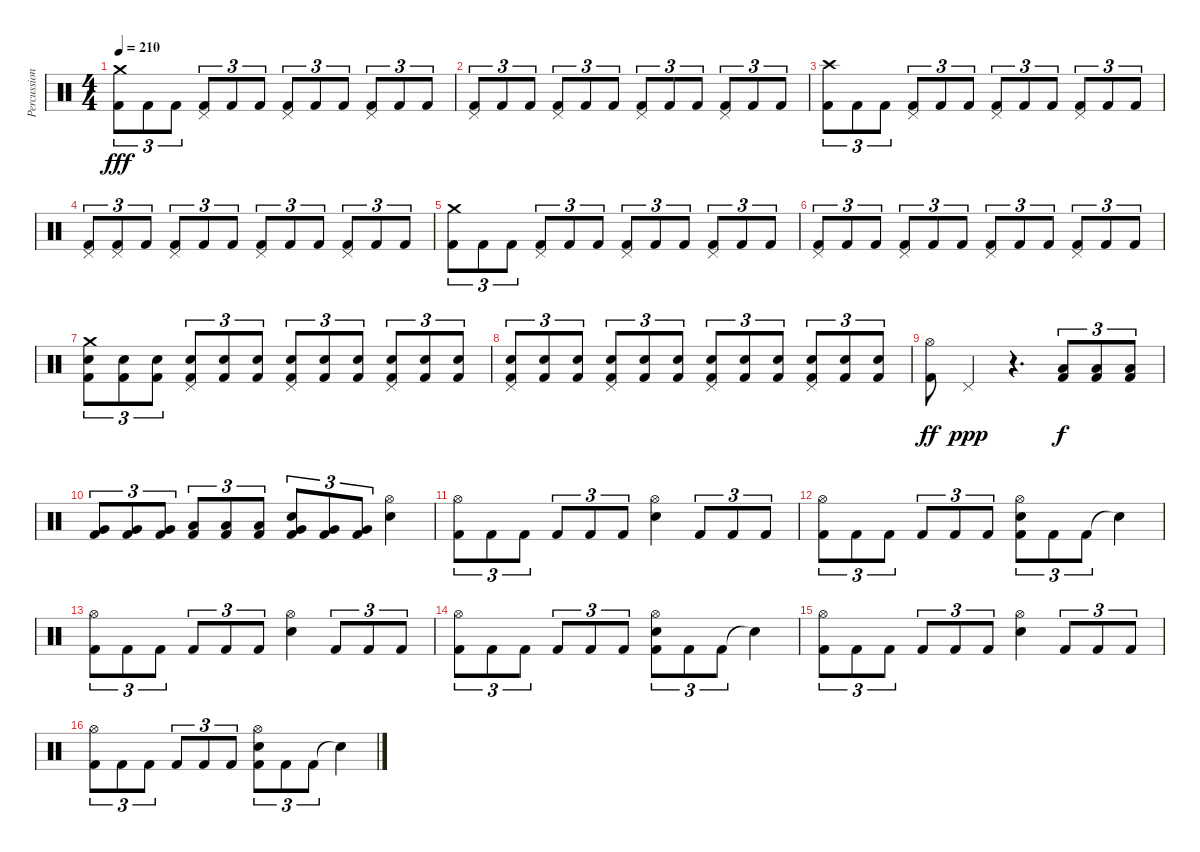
\track ("Percussion" "Percussion") {instrument percussion}
\staff {score}
\articulation defaults
\ts (4 4)
\tempo 210
\clef neutral
\ks c
("Crash medium (hit)" "Kick (hit) 2").8{tu (3 2) dy fff} "Kick (hit) 2".8{tu (3 2)} "Kick (hit) 2".8{tu (3 2)} ("Pedal Hi-Hat (hit)" "Kick (hit) 2").8{tu (3 2)} "Kick (hit) 2".8{tu (3 2)} "Kick (hit) 2".8{tu (3 2)} ("Pedal Hi-Hat (hit)" "Kick (hit) 2").8{tu (3 2)} "Kick (hit) 2".8{tu (3 2)} "Kick (hit) 2".8{tu (3 2)} ("Pedal Hi-Hat (hit)" "Kick (hit) 2").8{tu (3 2)} "Kick (hit) 2".8{tu (3 2)} "Kick (hit) 2".8{tu (3 2)} |
("Pedal Hi-Hat (hit)" "Kick (hit) 2").8{tu (3 2)} "Kick (hit) 2".8{tu (3 2)} "Kick (hit) 2".8{tu (3 2)} ("Pedal Hi-Hat (hit)" "Kick (hit) 2").8{tu (3 2)} "Kick (hit) 2".8{tu (3 2)} "Kick (hit) 2".8{tu (3 2)} ("Pedal Hi-Hat (hit)" "Kick (hit) 2").8{tu (3 2)} "Kick (hit) 2".8{tu (3 2)} "Kick (hit) 2".8{tu (3 2)} ("Pedal Hi-Hat (hit)" "Kick (hit) 2").8{tu (3 2)} "Kick (hit) 2".8{tu (3 2)} "Kick (hit) 2".8{tu (3 2)} |
("Crash high (hit)" "Kick (hit) 2").8{tu (3 2)} "Kick (hit) 2".8{tu (3 2)} "Kick (hit) 2".8{tu (3 2)} ("Pedal Hi-Hat (hit)" "Kick (hit) 2").8{tu (3 2)} "Kick (hit) 2".8{tu (3 2)} "Kick (hit) 2".8{tu (3 2)} ("Pedal Hi-Hat (hit)" "Kick (hit) 2").8{tu (3 2)} "Kick (hit) 2".8{tu (3 2)} "Kick (hit) 2".8{tu (3 2)} ("Pedal Hi-Hat (hit)" "Kick (hit) 2").8{tu (3 2)} "Kick (hit) 2".8{tu (3 2)} "Kick (hit) 2".8{tu (3 2)} |
("Pedal Hi-Hat (hit)" "Kick (hit) 2").8{tu (3 2)} ("Pedal Hi-Hat (hit)" "Kick (hit) 2").8{tu (3 2)} "Kick (hit) 2".8{tu (3 2)} ("Pedal Hi-Hat (hit)" "Kick (hit) 2").8{tu (3 2)} "Kick (hit) 2".8{tu (3 2)} "Kick (hit) 2".8{tu (3 2)} ("Pedal Hi-Hat (hit)" "Kick (hit) 2").8{tu (3 2)} "Kick (hit) 2".8{tu (3 2)} "Kick (hit) 2".8{tu (3 2)} ("Pedal Hi-Hat (hit)" "Kick (hit) 2").8{tu (3 2)} "Kick (hit) 2".8{tu (3 2)} "Kick (hit) 2".8{tu (3 2)} |
("Crash medium (hit)" "Kick (hit) 2").8{tu (3 2)} "Kick (hit) 2".8{tu (3 2)} "Kick (hit) 2".8{tu (3 2)} ("Pedal Hi-Hat (hit)" "Kick (hit) 2").8{tu (3 2)} "Kick (hit) 2".8{tu (3 2)} "Kick (hit) 2".8{tu (3 2)} ("Pedal Hi-Hat (hit)" "Kick (hit) 2").8{tu (3 2)} "Kick (hit) 2".8{tu (3 2)} "Kick (hit) 2".8{tu (3 2)} ("Pedal Hi-Hat (hit)" "Kick (hit) 2").8{tu (3 2)} "Kick (hit) 2".8{tu (3 2)} "Kick (hit) 2".8{tu (3 2)} |
("Pedal Hi-Hat (hit)" "Kick (hit) 2").8{tu (3 2)} "Kick (hit) 2".8{tu (3 2)} "Kick (hit) 2".8{tu (3 2)} ("Pedal Hi-Hat (hit)" "Kick (hit) 2").8{tu (3 2)} "Kick (hit) 2".8{tu (3 2)} "Kick (hit) 2".8{tu (3 2)} ("Pedal Hi-Hat (hit)" "Kick (hit) 2").8{tu (3 2)} "Kick (hit) 2".8{tu (3 2)} "Kick (hit) 2".8{tu (3 2)} ("Pedal Hi-Hat (hit)" "Kick (hit) 2").8{tu (3 2)} "Kick (hit) 2".8{tu (3 2)} "Kick (hit) 2".8{tu (3 2)} |
("Crash medium (hit)" "Electric Snare (hit)" "Kick (hit) 2").8{tu (3 2)} ("Electric Snare (hit)" "Kick (hit) 2").8{tu (3 2)} ("Electric Snare (hit)" "Kick (hit) 2").8{tu (3 2)} ("Pedal Hi-Hat (hit)" "Electric Snare (hit)" "Kick (hit) 2").8{tu (3 2)} ("Electric Snare (hit)" "Kick (hit) 2").8{tu (3 2)} ("Electric Snare (hit)" "Kick (hit) 2").8{tu (3 2)} ("Pedal Hi-Hat (hit)" "Electric Snare (hit)" "Kick (hit) 2").8{tu (3 2)} ("Electric Snare (hit)" "Kick (hit) 2").8{tu (3 2)} ("Electric Snare (hit)" "Kick (hit) 2").8{tu (3 2)} ("Pedal Hi-Hat (hit)" "Electric Snare (hit)" "Kick (hit) 2").8{tu (3 2)} ("Electric Snare (hit)" "Kick (hit) 2").8{tu (3 2)} ("Electric Snare (hit)" "Kick (hit) 2").8{tu (3 2)} |
("Pedal Hi-Hat (hit)" "Electric Snare (hit)" "Kick (hit) 2").8{tu (3 2)} ("Electric Snare (hit)" "Kick (hit) 2").8{tu (3 2)} ("Electric Snare (hit)" "Kick (hit) 2").8{tu (3 2)} ("Pedal Hi-Hat (hit)" "Electric Snare (hit)" "Kick (hit) 2").8{tu (3 2)} ("Electric Snare (hit)" "Kick (hit) 2").8{tu (3 2)} ("Electric Snare (hit)" "Kick (hit) 2").8{tu (3 2)} ("Pedal Hi-Hat (hit)" "Electric Snare (hit)" "Kick (hit) 2").8{tu (3 2)} ("Electric Snare (hit)" "Kick (hit) 2").8{tu (3 2)} ("Electric Snare (hit)" "Kick (hit) 2").8{tu (3 2)} ("Pedal Hi-Hat (hit)" "Electric Snare (hit)" "Kick (hit) 2").8{tu (3 2)} ("Electric Snare (hit)" "Kick (hit) 2").8{tu (3 2)} ("Electric Snare (hit)" "Kick (hit) 2").8{tu (3 2)} |
("Hi-Hat (open)" "Kick (hit) 2").8{dy ff} "Pedal Hi-Hat (hit)".4{dy ppp} r.4{d} ("Low Tom (hit)" "Kick (hit) 2").8{tu (3 2) dy f} ("Low Tom (hit)" "Kick (hit) 2").8{tu (3 2)} ("Low Tom (hit)" "Kick (hit) 2").8{tu (3 2)} |
("Very Low Tom (hit)" "Kick (hit) 2").8{tu (3 2)} ("Very Low Tom (hit)" "Kick (hit) 2").8{tu (3 2)} ("Very Low Tom (hit)" "Kick (hit) 2").8{tu (3 2)} ("Low Floor Tom (hit)" "Kick (hit) 2").8{tu (3 2)} ("Low Floor Tom (hit)" "Kick (hit) 2").8{tu (3 2)} ("Low Floor Tom (hit)" "Kick (hit) 2").8{tu (3 2)} ("Electric Snare (hit)" "Very Low Tom (hit)" "Kick (hit) 2").8{tu (3 2)} ("Very Low Tom (hit)" "Kick (hit) 2").8{tu (3 2)} ("Very Low Tom (hit)" "Kick (hit) 2").8{tu (3 2)} ("Hi-Hat (open)" "Electric Snare (hit)").4 |
("Hi-Hat (open)" "Kick (hit) 2").8{tu (3 2)} "Kick (hit) 2".8{tu (3 2)} "Kick (hit) 2".8{tu (3 2)} "Kick (hit) 2".8{tu (3 2)} "Kick (hit) 2".8{tu (3 2)} "Kick (hit) 2".8{tu (3 2)} ("Hi-Hat (open)" "Electric Snare (hit)").4 "Kick (hit) 2".8{tu (3 2)} "Kick (hit) 2".8{tu (3 2)} "Kick (hit) 2".8{tu (3 2)} |
("Hi-Hat (open)" "Kick (hit) 2").8{tu (3 2)} "Kick (hit) 2".8{tu (3 2)} "Kick (hit) 2".8{tu (3 2)} "Kick (hit) 2".8{tu (3 2)} "Kick (hit) 2".8{tu (3 2)} "Kick (hit) 2".8{tu (3 2)} ("Hi-Hat (open)" "Electric Snare (hit)" "Kick (hit) 2").8{tu (3 2)} "Kick (hit) 2".8{tu (3 2)} "Kick (hit) 2".8{tu (3 2)} "Snare (hit)"{t}.4 |
("Hi-Hat (open)" "Kick (hit) 2").8{tu (3 2)} "Kick (hit) 2".8{tu (3 2)} "Kick (hit) 2".8{tu (3 2)} "Kick (hit) 2".8{tu (3 2)} "Kick (hit) 2".8{tu (3 2)} "Kick (hit) 2".8{tu (3 2)} ("Hi-Hat (open)" "Electric Snare (hit)").4 "Kick (hit) 2".8{tu (3 2)} "Kick (hit) 2".8{tu (3 2)} "Kick (hit) 2".8{tu (3 2)} |
("Hi-Hat (open)" "Kick (hit) 2").8{tu (3 2)} "Kick (hit) 2".8{tu (3 2)} "Kick (hit) 2".8{tu (3 2)} "Kick (hit) 2".8{tu (3 2)} "Kick (hit) 2".8{tu (3 2)} "Kick (hit) 2".8{tu (3 2)} ("Hi-Hat (open)" "Electric Snare (hit)" "Kick (hit) 2").8{tu (3 2)} "Kick (hit) 2".8{tu (3 2)} "Kick (hit) 2".8{tu (3 2)} "Snare (hit)"{t}.4 |
("Hi-Hat (open)" "Kick (hit) 2").8{tu (3 2)} "Kick (hit) 2".8{tu (3 2)} "Kick (hit) 2".8{tu (3 2)} "Kick (hit) 2".8{tu (3 2)} "Kick (hit) 2".8{tu (3 2)} "Kick (hit) 2".8{tu (3 2)} ("Hi-Hat (open)" "Electric Snare (hit)").4 "Kick (hit) 2".8{tu (3 2)} "Kick (hit) 2".8{tu (3 2)} "Kick (hit) 2".8{tu (3 2)} |
("Hi-Hat (open)" "Kick (hit) 2").8{tu (3 2)} "Kick (hit) 2".8{tu (3 2)} "Kick (hit) 2".8{tu (3 2)} "Kick (hit) 2".8{tu (3 2)} "Kick (hit) 2".8{tu (3 2)} "Kick (hit) 2".8{tu (3 2)} ("Hi-Hat (open)" "Electric Snare (hit)" "Kick (hit) 2").8{tu (3 2)} "Kick (hit) 2".8{tu (3 2)} "Kick (hit) 2".8{tu (3 2)} "Snare (hit)"{t}.4
